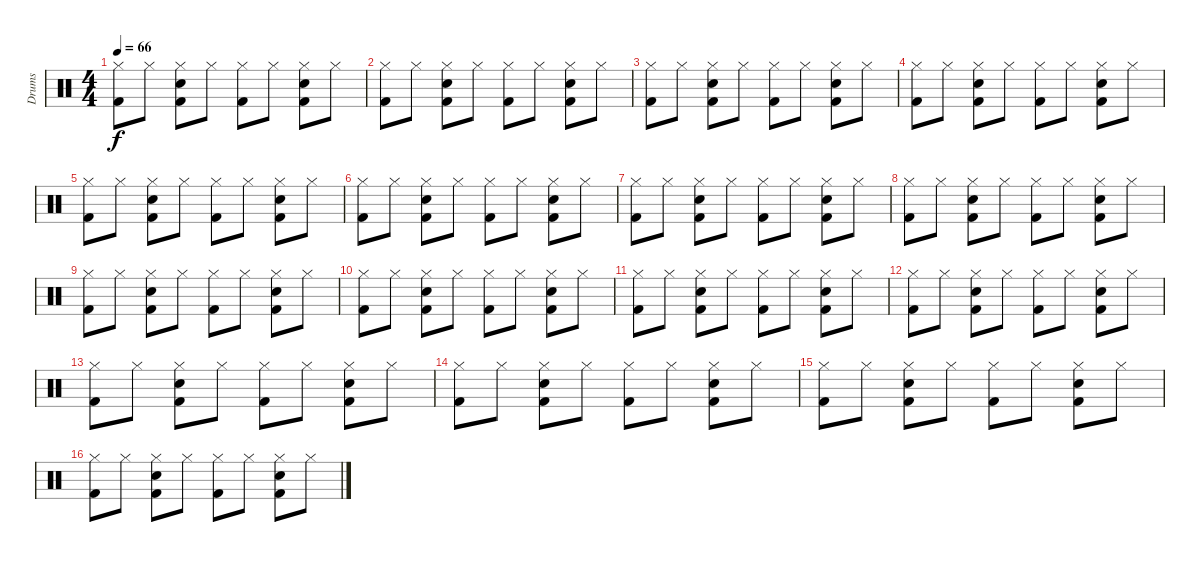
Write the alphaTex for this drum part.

\track ("Drums" "Drums") {instrument percussion}
\staff {score}
\articulation defaults
\ts (4 4)
\tempo 66
\clef neutral
\ks c
("Kick (hit) 2" "Hi-Hat (closed)").8{dy f} "Hi-Hat (closed)".8 ("Kick (hit) 2" "Hi-Hat (closed)" "Snare (hit) 2").8 "Hi-Hat (closed)".8 ("Kick (hit) 2" "Hi-Hat (closed)").8 "Hi-Hat (closed)".8 ("Kick (hit) 2" "Hi-Hat (closed)" "Snare (hit) 2").8 "Hi-Hat (closed)".8 |
("Kick (hit) 2" "Hi-Hat (closed)").8 "Hi-Hat (closed)".8 ("Kick (hit) 2" "Hi-Hat (closed)" "Snare (hit) 2").8 "Hi-Hat (closed)".8 ("Kick (hit) 2" "Hi-Hat (closed)").8 "Hi-Hat (closed)".8 ("Kick (hit) 2" "Hi-Hat (closed)" "Snare (hit) 2").8 "Hi-Hat (closed)".8 |
("Kick (hit) 2" "Hi-Hat (closed)").8 "Hi-Hat (closed)".8 ("Kick (hit) 2" "Hi-Hat (closed)" "Snare (hit) 2").8 "Hi-Hat (closed)".8 ("Kick (hit) 2" "Hi-Hat (closed)").8 "Hi-Hat (closed)".8 ("Kick (hit) 2" "Hi-Hat (closed)" "Snare (hit) 2").8 "Hi-Hat (closed)".8 |
("Kick (hit) 2" "Hi-Hat (closed)").8 "Hi-Hat (closed)".8 ("Kick (hit) 2" "Hi-Hat (closed)" "Snare (hit) 2").8 "Hi-Hat (closed)".8 ("Kick (hit) 2" "Hi-Hat (closed)").8 "Hi-Hat (closed)".8 ("Kick (hit) 2" "Hi-Hat (closed)" "Snare (hit) 2").8 "Hi-Hat (closed)".8 |
("Kick (hit) 2" "Hi-Hat (closed)").8 "Hi-Hat (closed)".8 ("Kick (hit) 2" "Hi-Hat (closed)" "Snare (hit) 2").8 "Hi-Hat (closed)".8 ("Kick (hit) 2" "Hi-Hat (closed)").8 "Hi-Hat (closed)".8 ("Kick (hit) 2" "Hi-Hat (closed)" "Snare (hit) 2").8 "Hi-Hat (closed)".8 |
("Kick (hit) 2" "Hi-Hat (closed)").8 "Hi-Hat (closed)".8 ("Kick (hit) 2" "Hi-Hat (closed)" "Snare (hit) 2").8 "Hi-Hat (closed)".8 ("Kick (hit) 2" "Hi-Hat (closed)").8 "Hi-Hat (closed)".8 ("Kick (hit) 2" "Hi-Hat (closed)" "Snare (hit) 2").8 "Hi-Hat (closed)".8 |
("Kick (hit) 2" "Hi-Hat (closed)").8 "Hi-Hat (closed)".8 ("Kick (hit) 2" "Hi-Hat (closed)" "Snare (hit) 2").8 "Hi-Hat (closed)".8 ("Kick (hit) 2" "Hi-Hat (closed)").8 "Hi-Hat (closed)".8 ("Kick (hit) 2" "Hi-Hat (closed)" "Snare (hit) 2").8 "Hi-Hat (closed)".8 |
("Kick (hit) 2" "Hi-Hat (closed)").8 "Hi-Hat (closed)".8 ("Kick (hit) 2" "Hi-Hat (closed)" "Snare (hit) 2").8 "Hi-Hat (closed)".8 ("Kick (hit) 2" "Hi-Hat (closed)").8 "Hi-Hat (closed)".8 ("Kick (hit) 2" "Hi-Hat (closed)" "Snare (hit) 2").8 "Hi-Hat (closed)".8 |
("Kick (hit) 2" "Hi-Hat (closed)").8 "Hi-Hat (closed)".8 ("Kick (hit) 2" "Hi-Hat (closed)" "Snare (hit) 2").8 "Hi-Hat (closed)".8 ("Kick (hit) 2" "Hi-Hat (closed)").8 "Hi-Hat (closed)".8 ("Kick (hit) 2" "Hi-Hat (closed)" "Snare (hit) 2").8 "Hi-Hat (closed)".8 |
("Kick (hit) 2" "Hi-Hat (closed)").8 "Hi-Hat (closed)".8 ("Kick (hit) 2" "Hi-Hat (closed)" "Snare (hit) 2").8 "Hi-Hat (closed)".8 ("Kick (hit) 2" "Hi-Hat (closed)").8 "Hi-Hat (closed)".8 ("Kick (hit) 2" "Hi-Hat (closed)" "Snare (hit) 2").8 "Hi-Hat (closed)".8 |
("Kick (hit) 2" "Hi-Hat (closed)").8 "Hi-Hat (closed)".8 ("Kick (hit) 2" "Hi-Hat (closed)" "Snare (hit) 2").8 "Hi-Hat (closed)".8 ("Kick (hit) 2" "Hi-Hat (closed)").8 "Hi-Hat (closed)".8 ("Kick (hit) 2" "Hi-Hat (closed)" "Snare (hit) 2").8 "Hi-Hat (closed)".8 |
("Kick (hit) 2" "Hi-Hat (closed)").8 "Hi-Hat (closed)".8 ("Kick (hit) 2" "Hi-Hat (closed)" "Snare (hit) 2").8 "Hi-Hat (closed)".8 ("Kick (hit) 2" "Hi-Hat (closed)").8 "Hi-Hat (closed)".8 ("Kick (hit) 2" "Hi-Hat (closed)" "Snare (hit) 2").8 "Hi-Hat (closed)".8 |
("Kick (hit) 2" "Hi-Hat (closed)").8 "Hi-Hat (closed)".8 ("Kick (hit) 2" "Hi-Hat (closed)" "Snare (hit) 2").8 "Hi-Hat (closed)".8 ("Kick (hit) 2" "Hi-Hat (closed)").8 "Hi-Hat (closed)".8 ("Kick (hit) 2" "Hi-Hat (closed)" "Snare (hit) 2").8 "Hi-Hat (closed)".8 |
("Kick (hit) 2" "Hi-Hat (closed)").8 "Hi-Hat (closed)".8 ("Kick (hit) 2" "Hi-Hat (closed)" "Snare (hit) 2").8 "Hi-Hat (closed)".8 ("Kick (hit) 2" "Hi-Hat (closed)").8 "Hi-Hat (closed)".8 ("Kick (hit) 2" "Hi-Hat (closed)" "Snare (hit) 2").8 "Hi-Hat (closed)".8 |
("Kick (hit) 2" "Hi-Hat (closed)").8 "Hi-Hat (closed)".8 ("Kick (hit) 2" "Hi-Hat (closed)" "Snare (hit) 2").8 "Hi-Hat (closed)".8 ("Kick (hit) 2" "Hi-Hat (closed)").8 "Hi-Hat (closed)".8 ("Kick (hit) 2" "Hi-Hat (closed)" "Snare (hit) 2").8 "Hi-Hat (closed)".8 |
("Kick (hit) 2" "Hi-Hat (closed)").8 "Hi-Hat (closed)".8 ("Kick (hit) 2" "Hi-Hat (closed)" "Snare (hit) 2").8 "Hi-Hat (closed)".8 ("Kick (hit) 2" "Hi-Hat (closed)").8 "Hi-Hat (closed)".8 ("Kick (hit) 2" "Hi-Hat (closed)" "Snare (hit) 2").8 "Hi-Hat (closed)".8
